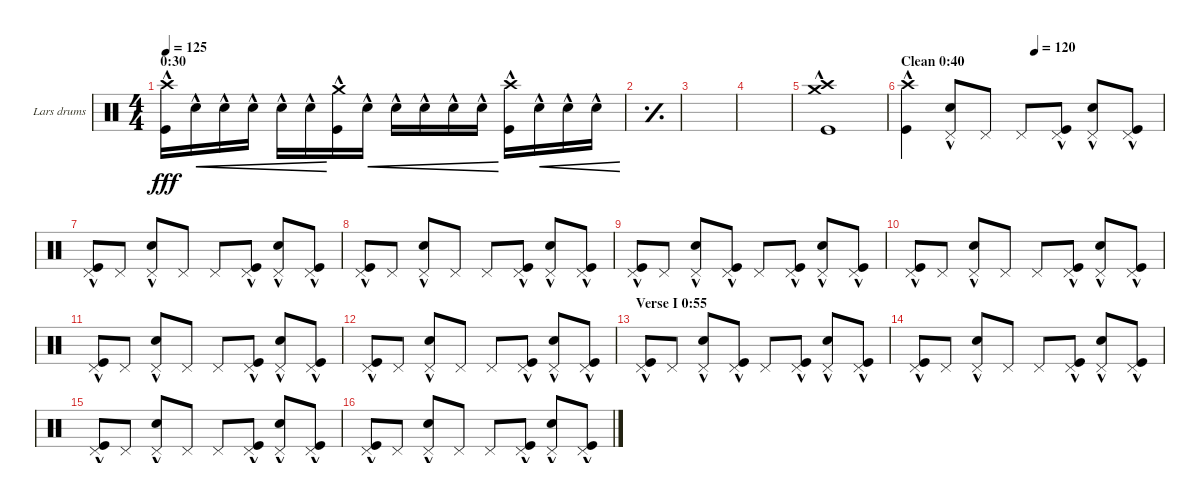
\defaultSystemsLayout 4
\bracketExtendMode groupsimilarinstruments
\firstSystemTrackNameOrientation horizontal
\otherSystemsTrackNameOrientation horizontal
\track ("Lars drums" "Lars drums") {instrument percussion}
\staff {score}
\articulation defaults
\ts (4 4)
\section ("" "0:30")
\tempo 125
\clef neutral
\ks c
("Crash high (hit)"{hac} "Kick (hit)"{hac}).16{dy fff} "Snare (hit) 2"{hac}.16{cre} "Snare (hit) 2"{hac}.16{cre} "Snare (hit) 2"{hac}.16{cre} "Snare (hit) 2"{hac}.16{cre} "Snare (hit) 2"{hac}.16{cre} ("Crash medium (hit)"{hac} "Kick (hit)"{hac}).16 "Snare (hit) 2"{hac}.16{cre} "Snare (hit) 2"{hac}.16{cre} "Snare (hit) 2"{hac}.16{cre} "Snare (hit) 2"{hac}.16{cre} "Snare (hit) 2"{hac}.16{cre} ("Crash high (hit)"{hac} "Kick (hit)"{hac}).16 "Snare (hit) 2"{hac}.16{cre} "Snare (hit) 2"{hac}.16{cre} "Snare (hit) 2"{hac}.16{cre} |
\simile simple
|
|
|
\simile none
("Crash high (hit)"{hac} "Crash medium (hit)"{hac} "Kick (hit)"{hac}).1 |
\section ("" "Clean 0:40")
\tempo (120 0.5)
("Crash high (hit)"{hac} "Kick (hit)"{hac}).4 ("Snare (hit) 2"{hac} "Pedal Hi-Hat (hit)").8 "Pedal Hi-Hat (hit)".8 "Pedal Hi-Hat (hit)".8 ("Pedal Hi-Hat (hit)" "Kick (hit)"{hac}).8 ("Pedal Hi-Hat (hit)" "Snare (hit) 2"{hac}).8 ("Kick (hit)"{hac} "Pedal Hi-Hat (hit)").8 |
("Kick (hit)"{hac} "Pedal Hi-Hat (hit)").8 "Pedal Hi-Hat (hit)".8 ("Pedal Hi-Hat (hit)" "Snare (hit) 2"{hac}).8 "Pedal Hi-Hat (hit)".8 "Pedal Hi-Hat (hit)".8 ("Pedal Hi-Hat (hit)" "Kick (hit)"{hac}).8 ("Pedal Hi-Hat (hit)" "Snare (hit) 2"{hac}).8 ("Kick (hit)"{hac} "Pedal Hi-Hat (hit)").8 |
("Kick (hit)"{hac} "Pedal Hi-Hat (hit)").8 "Pedal Hi-Hat (hit)".8 ("Pedal Hi-Hat (hit)" "Snare (hit) 2"{hac}).8 "Pedal Hi-Hat (hit)".8 "Pedal Hi-Hat (hit)".8 ("Pedal Hi-Hat (hit)" "Kick (hit)"{hac}).8 ("Pedal Hi-Hat (hit)" "Snare (hit) 2"{hac}).8 ("Pedal Hi-Hat (hit)" "Kick (hit)"{hac}).8 |
("Kick (hit)"{hac} "Pedal Hi-Hat (hit)").8 "Pedal Hi-Hat (hit)".8 ("Pedal Hi-Hat (hit)" "Snare (hit) 2"{hac}).8 ("Pedal Hi-Hat (hit)" "Kick (hit)"{hac}).8 "Pedal Hi-Hat (hit)".8 ("Pedal Hi-Hat (hit)" "Kick (hit)"{hac}).8 ("Pedal Hi-Hat (hit)" "Snare (hit) 2"{hac}).8 ("Pedal Hi-Hat (hit)" "Kick (hit)"{hac}).8 |
("Kick (hit)"{hac} "Pedal Hi-Hat (hit)").8 "Pedal Hi-Hat (hit)".8 ("Pedal Hi-Hat (hit)" "Snare (hit) 2"{hac}).8 "Pedal Hi-Hat (hit)".8 "Pedal Hi-Hat (hit)".8 ("Pedal Hi-Hat (hit)" "Kick (hit)"{hac}).8 ("Pedal Hi-Hat (hit)" "Snare (hit) 2"{hac}).8 ("Pedal Hi-Hat (hit)" "Kick (hit)"{hac}).8 |
("Kick (hit)"{hac} "Pedal Hi-Hat (hit)").8 "Pedal Hi-Hat (hit)".8 ("Pedal Hi-Hat (hit)" "Snare (hit) 2"{hac}).8 "Pedal Hi-Hat (hit)".8 "Pedal Hi-Hat (hit)".8 ("Pedal Hi-Hat (hit)" "Kick (hit)"{hac}).8 ("Pedal Hi-Hat (hit)" "Snare (hit) 2"{hac}).8 ("Kick (hit)"{hac} "Pedal Hi-Hat (hit)").8 |
("Kick (hit)"{hac} "Pedal Hi-Hat (hit)").8 "Pedal Hi-Hat (hit)".8 ("Pedal Hi-Hat (hit)" "Snare (hit) 2"{hac}).8 "Pedal Hi-Hat (hit)".8 "Pedal Hi-Hat (hit)".8 ("Pedal Hi-Hat (hit)" "Kick (hit)"{hac}).8 ("Pedal Hi-Hat (hit)" "Snare (hit) 2"{hac}).8 ("Pedal Hi-Hat (hit)" "Kick (hit)"{hac}).8 |
\section ("" "Verse I 0:55")
("Kick (hit)"{hac} "Pedal Hi-Hat (hit)").8 "Pedal Hi-Hat (hit)".8 ("Pedal Hi-Hat (hit)" "Snare (hit) 2"{hac}).8 ("Pedal Hi-Hat (hit)" "Kick (hit)"{hac}).8 "Pedal Hi-Hat (hit)".8 ("Pedal Hi-Hat (hit)" "Kick (hit)"{hac}).8 ("Pedal Hi-Hat (hit)" "Snare (hit) 2"{hac}).8 ("Pedal Hi-Hat (hit)" "Kick (hit)"{hac}).8 |
("Kick (hit)"{hac} "Pedal Hi-Hat (hit)").8 "Pedal Hi-Hat (hit)".8 ("Pedal Hi-Hat (hit)" "Snare (hit) 2"{hac}).8 "Pedal Hi-Hat (hit)".8 "Pedal Hi-Hat (hit)".8 ("Pedal Hi-Hat (hit)" "Kick (hit)"{hac}).8 ("Pedal Hi-Hat (hit)" "Snare (hit) 2"{hac}).8 ("Pedal Hi-Hat (hit)" "Kick (hit)"{hac}).8 |
("Kick (hit)"{hac} "Pedal Hi-Hat (hit)").8 "Pedal Hi-Hat (hit)".8 ("Pedal Hi-Hat (hit)" "Snare (hit) 2"{hac}).8 "Pedal Hi-Hat (hit)".8 "Pedal Hi-Hat (hit)".8 ("Pedal Hi-Hat (hit)" "Kick (hit)"{hac}).8 ("Pedal Hi-Hat (hit)" "Snare (hit) 2"{hac}).8 ("Kick (hit)"{hac} "Pedal Hi-Hat (hit)").8 |
("Kick (hit)"{hac} "Pedal Hi-Hat (hit)").8 "Pedal Hi-Hat (hit)".8 ("Pedal Hi-Hat (hit)" "Snare (hit) 2"{hac}).8 "Pedal Hi-Hat (hit)".8 "Pedal Hi-Hat (hit)".8 ("Pedal Hi-Hat (hit)" "Kick (hit)"{hac}).8 ("Pedal Hi-Hat (hit)" "Snare (hit) 2"{hac}).8 ("Pedal Hi-Hat (hit)" "Kick (hit)"{hac}).8
